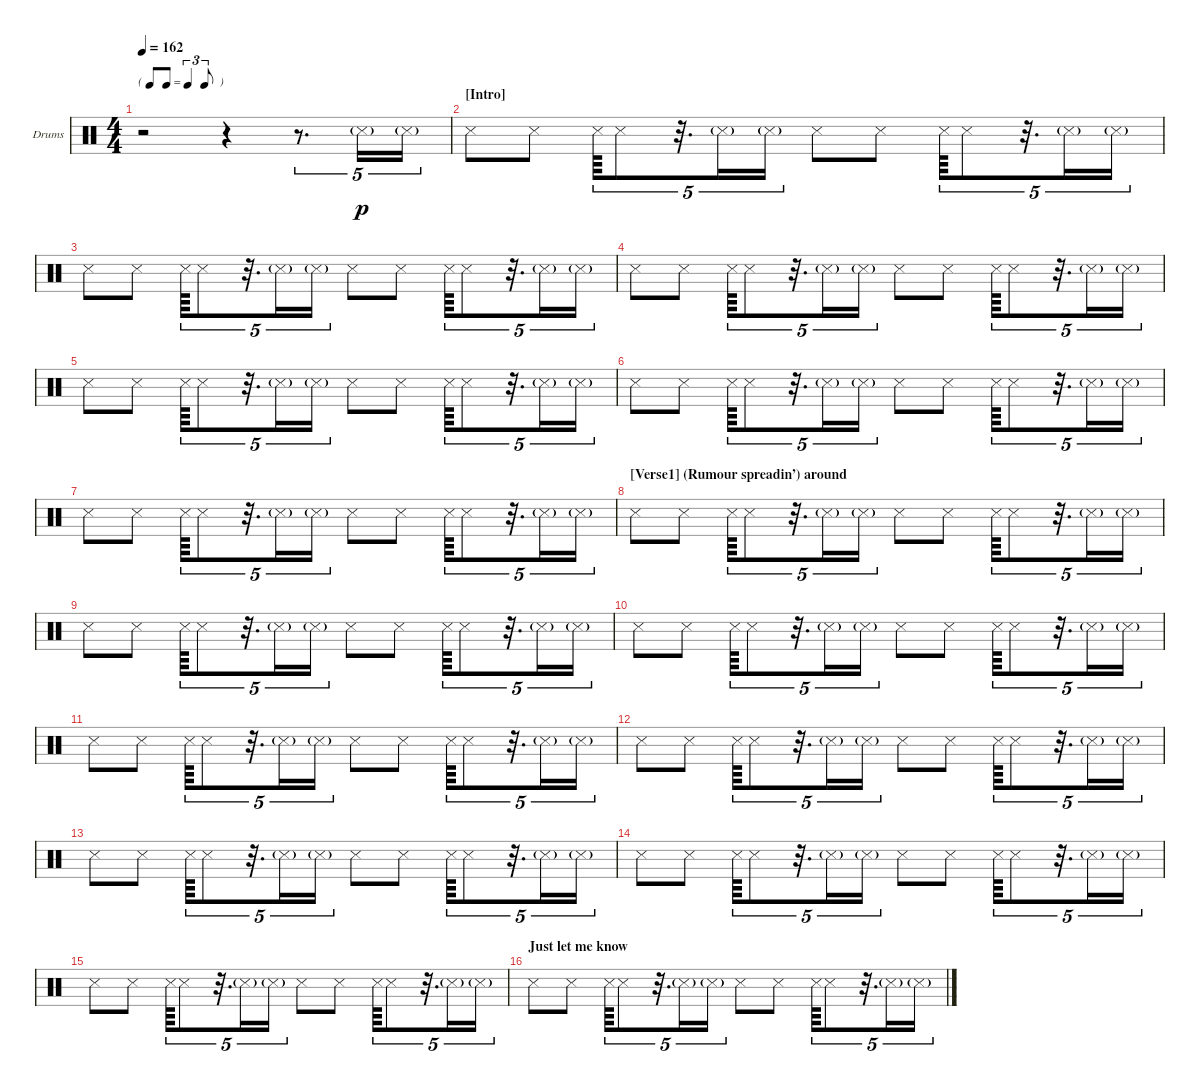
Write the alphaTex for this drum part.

\bracketExtendMode groupsimilarinstruments
\firstSystemTrackNameOrientation horizontal
\otherSystemsTrackNameOrientation horizontal
\track ("Drumkit" "Drums") {instrument percussion}
\staff {score}
\articulation defaults
\ts (4 4)
\beaming (8 2 2 2 2)
\tf triplet8th
\tempo 162
\clef neutral
\ks c
r.2{dy p} r.4 r.8{d tu (5 4)} "Snare (side stick) 3"{g}.16{tu (5 4)} "Snare (side stick) 3"{g}.16{tu (5 4)} |
\section ("" "[Intro]")
"Snare (side stick) 3".8 "Snare (side stick) 3".8 "Snare (side stick) 3".64{tu (5 4)} "Snare (side stick) 3".8{tu (5 4)} r.32{d tu (5 4)} "Snare (side stick) 3"{g}.16{tu (5 4)} "Snare (side stick) 3"{g}.16{tu (5 4)} "Snare (side stick) 3".8 "Snare (side stick) 3".8 "Snare (side stick) 3".64{tu (5 4)} "Snare (side stick) 3".8{tu (5 4)} r.32{d tu (5 4)} "Snare (side stick) 3"{g}.16{tu (5 4)} "Snare (side stick) 3"{g}.16{tu (5 4)} |
"Snare (side stick) 3".8 "Snare (side stick) 3".8 "Snare (side stick) 3".64{tu (5 4)} "Snare (side stick) 3".8{tu (5 4)} r.32{d tu (5 4)} "Snare (side stick) 3"{g}.16{tu (5 4)} "Snare (side stick) 3"{g}.16{tu (5 4)} "Snare (side stick) 3".8 "Snare (side stick) 3".8 "Snare (side stick) 3".64{tu (5 4)} "Snare (side stick) 3".8{tu (5 4)} r.32{d tu (5 4)} "Snare (side stick) 3"{g}.16{tu (5 4)} "Snare (side stick) 3"{g}.16{tu (5 4)} |
"Snare (side stick) 3".8 "Snare (side stick) 3".8 "Snare (side stick) 3".64{tu (5 4)} "Snare (side stick) 3".8{tu (5 4)} r.32{d tu (5 4)} "Snare (side stick) 3"{g}.16{tu (5 4)} "Snare (side stick) 3"{g}.16{tu (5 4)} "Snare (side stick) 3".8 "Snare (side stick) 3".8 "Snare (side stick) 3".64{tu (5 4)} "Snare (side stick) 3".8{tu (5 4)} r.32{d tu (5 4)} "Snare (side stick) 3"{g}.16{tu (5 4)} "Snare (side stick) 3"{g}.16{tu (5 4)} |
"Snare (side stick) 3".8 "Snare (side stick) 3".8 "Snare (side stick) 3".64{tu (5 4)} "Snare (side stick) 3".8{tu (5 4)} r.32{d tu (5 4)} "Snare (side stick) 3"{g}.16{tu (5 4)} "Snare (side stick) 3"{g}.16{tu (5 4)} "Snare (side stick) 3".8 "Snare (side stick) 3".8 "Snare (side stick) 3".64{tu (5 4)} "Snare (side stick) 3".8{tu (5 4)} r.32{d tu (5 4)} "Snare (side stick) 3"{g}.16{tu (5 4)} "Snare (side stick) 3"{g}.16{tu (5 4)} |
"Snare (side stick) 3".8 "Snare (side stick) 3".8 "Snare (side stick) 3".64{tu (5 4)} "Snare (side stick) 3".8{tu (5 4)} r.32{d tu (5 4)} "Snare (side stick) 3"{g}.16{tu (5 4)} "Snare (side stick) 3"{g}.16{tu (5 4)} "Snare (side stick) 3".8 "Snare (side stick) 3".8 "Snare (side stick) 3".64{tu (5 4)} "Snare (side stick) 3".8{tu (5 4)} r.32{d tu (5 4)} "Snare (side stick) 3"{g}.16{tu (5 4)} "Snare (side stick) 3"{g}.16{tu (5 4)} |
"Snare (side stick) 3".8 "Snare (side stick) 3".8 "Snare (side stick) 3".64{tu (5 4)} "Snare (side stick) 3".8{tu (5 4)} r.32{d tu (5 4)} "Snare (side stick) 3"{g}.16{tu (5 4)} "Snare (side stick) 3"{g}.16{tu (5 4)} "Snare (side stick) 3".8 "Snare (side stick) 3".8 "Snare (side stick) 3".64{tu (5 4)} "Snare (side stick) 3".8{tu (5 4)} r.32{d tu (5 4)} "Snare (side stick) 3"{g}.16{tu (5 4)} "Snare (side stick) 3"{g}.16{tu (5 4)} |
\section ("" "[Verse1] (Rumour spreadin’) around")
"Snare (side stick) 3".8 "Snare (side stick) 3".8 "Snare (side stick) 3".64{tu (5 4)} "Snare (side stick) 3".8{tu (5 4)} r.32{d tu (5 4)} "Snare (side stick) 3"{g}.16{tu (5 4)} "Snare (side stick) 3"{g}.16{tu (5 4)} "Snare (side stick) 3".8 "Snare (side stick) 3".8 "Snare (side stick) 3".64{tu (5 4)} "Snare (side stick) 3".8{tu (5 4)} r.32{d tu (5 4)} "Snare (side stick) 3"{g}.16{tu (5 4)} "Snare (side stick) 3"{g}.16{tu (5 4)} |
"Snare (side stick) 3".8 "Snare (side stick) 3".8 "Snare (side stick) 3".64{tu (5 4)} "Snare (side stick) 3".8{tu (5 4)} r.32{d tu (5 4)} "Snare (side stick) 3"{g}.16{tu (5 4)} "Snare (side stick) 3"{g}.16{tu (5 4)} "Snare (side stick) 3".8 "Snare (side stick) 3".8 "Snare (side stick) 3".64{tu (5 4)} "Snare (side stick) 3".8{tu (5 4)} r.32{d tu (5 4)} "Snare (side stick) 3"{g}.16{tu (5 4)} "Snare (side stick) 3"{g}.16{tu (5 4)} |
"Snare (side stick) 3".8 "Snare (side stick) 3".8 "Snare (side stick) 3".64{tu (5 4)} "Snare (side stick) 3".8{tu (5 4)} r.32{d tu (5 4)} "Snare (side stick) 3"{g}.16{tu (5 4)} "Snare (side stick) 3"{g}.16{tu (5 4)} "Snare (side stick) 3".8 "Snare (side stick) 3".8 "Snare (side stick) 3".64{tu (5 4)} "Snare (side stick) 3".8{tu (5 4)} r.32{d tu (5 4)} "Snare (side stick) 3"{g}.16{tu (5 4)} "Snare (side stick) 3"{g}.16{tu (5 4)} |
"Snare (side stick) 3".8 "Snare (side stick) 3".8 "Snare (side stick) 3".64{tu (5 4)} "Snare (side stick) 3".8{tu (5 4)} r.32{d tu (5 4)} "Snare (side stick) 3"{g}.16{tu (5 4)} "Snare (side stick) 3"{g}.16{tu (5 4)} "Snare (side stick) 3".8 "Snare (side stick) 3".8 "Snare (side stick) 3".64{tu (5 4)} "Snare (side stick) 3".8{tu (5 4)} r.32{d tu (5 4)} "Snare (side stick) 3"{g}.16{tu (5 4)} "Snare (side stick) 3"{g}.16{tu (5 4)} |
"Snare (side stick) 3".8 "Snare (side stick) 3".8 "Snare (side stick) 3".64{tu (5 4)} "Snare (side stick) 3".8{tu (5 4)} r.32{d tu (5 4)} "Snare (side stick) 3"{g}.16{tu (5 4)} "Snare (side stick) 3"{g}.16{tu (5 4)} "Snare (side stick) 3".8 "Snare (side stick) 3".8 "Snare (side stick) 3".64{tu (5 4)} "Snare (side stick) 3".8{tu (5 4)} r.32{d tu (5 4)} "Snare (side stick) 3"{g}.16{tu (5 4)} "Snare (side stick) 3"{g}.16{tu (5 4)} |
"Snare (side stick) 3".8 "Snare (side stick) 3".8 "Snare (side stick) 3".64{tu (5 4)} "Snare (side stick) 3".8{tu (5 4)} r.32{d tu (5 4)} "Snare (side stick) 3"{g}.16{tu (5 4)} "Snare (side stick) 3"{g}.16{tu (5 4)} "Snare (side stick) 3".8 "Snare (side stick) 3".8 "Snare (side stick) 3".64{tu (5 4)} "Snare (side stick) 3".8{tu (5 4)} r.32{d tu (5 4)} "Snare (side stick) 3"{g}.16{tu (5 4)} "Snare (side stick) 3"{g}.16{tu (5 4)} |
"Snare (side stick) 3".8 "Snare (side stick) 3".8 "Snare (side stick) 3".64{tu (5 4)} "Snare (side stick) 3".8{tu (5 4)} r.32{d tu (5 4)} "Snare (side stick) 3"{g}.16{tu (5 4)} "Snare (side stick) 3"{g}.16{tu (5 4)} "Snare (side stick) 3".8 "Snare (side stick) 3".8 "Snare (side stick) 3".64{tu (5 4)} "Snare (side stick) 3".8{tu (5 4)} r.32{d tu (5 4)} "Snare (side stick) 3"{g}.16{tu (5 4)} "Snare (side stick) 3"{g}.16{tu (5 4)} |
"Snare (side stick) 3".8 "Snare (side stick) 3".8 "Snare (side stick) 3".64{tu (5 4)} "Snare (side stick) 3".8{tu (5 4)} r.32{d tu (5 4)} "Snare (side stick) 3"{g}.16{tu (5 4)} "Snare (side stick) 3"{g}.16{tu (5 4)} "Snare (side stick) 3".8 "Snare (side stick) 3".8 "Snare (side stick) 3".64{tu (5 4)} "Snare (side stick) 3".8{tu (5 4)} r.32{d tu (5 4)} "Snare (side stick) 3"{g}.16{tu (5 4)} "Snare (side stick) 3"{g}.16{tu (5 4)} |
\section ("" "Just let me know")
"Snare (side stick) 3".8 "Snare (side stick) 3".8 "Snare (side stick) 3".64{tu (5 4)} "Snare (side stick) 3".8{tu (5 4)} r.32{d tu (5 4)} "Snare (side stick) 3"{g}.16{tu (5 4)} "Snare (side stick) 3"{g}.16{tu (5 4)} "Snare (side stick) 3".8 "Snare (side stick) 3".8 "Snare (side stick) 3".64{tu (5 4)} "Snare (side stick) 3".8{tu (5 4)} r.32{d tu (5 4)} "Snare (side stick) 3"{g}.16{tu (5 4)} "Snare (side stick) 3"{g}.16{tu (5 4)}
